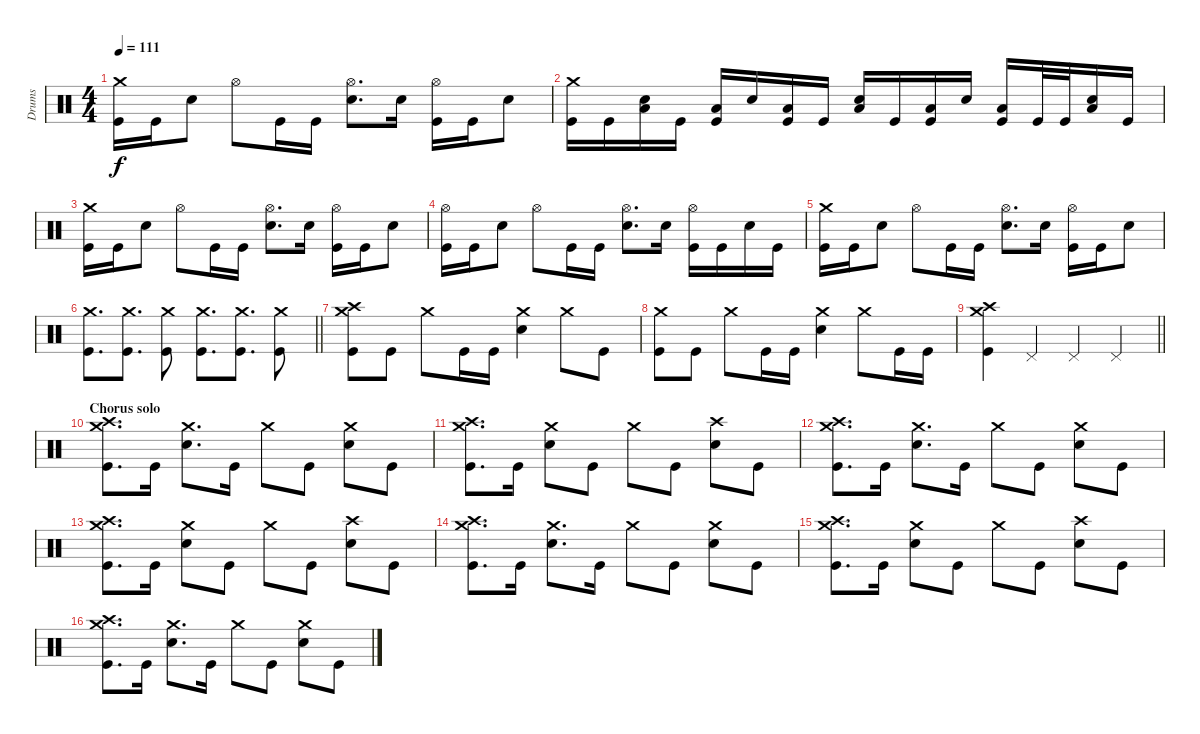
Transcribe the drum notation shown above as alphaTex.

\track ("Drums" "Drums") {instrument percussion}
\staff {score}
\articulation defaults
\ts (4 4)
\tempo 111
\clef neutral
\ks c
("Crash medium (hit)" "Kick (hit)").16{dy f} "Kick (hit)".16 "Electric Snare (hit)".8 "Hi-Hat (open)".8 "Kick (hit)".16 "Kick (hit)".16 ("Hi-Hat (open)" "Electric Snare (hit)").8{d} "Electric Snare (hit)".16 ("Hi-Hat (open)" "Kick (hit)").16 "Kick (hit)".16 "Electric Snare (hit)".8 |
("Crash medium (hit)" "Kick (hit)").16 "Kick (hit)".16 ("Low Floor Tom (hit)" "Electric Snare (hit)").16 "Kick (hit)".16 ("Low Floor Tom (hit)" "Kick (hit)").16 "Electric Snare (hit)".16 ("Low Floor Tom (hit)" "Kick (hit)").16 "Kick (hit)".16 ("Low Floor Tom (hit)" "Electric Snare (hit)").16 "Kick (hit)".16 ("Low Floor Tom (hit)" "Kick (hit)").16 "Electric Snare (hit)".16 ("Low Floor Tom (hit)" "Kick (hit)").16 "Kick (hit)".32 "Kick (hit)".32 ("Low Floor Tom (hit)" "Electric Snare (hit)").16 "Kick (hit)".16 |
("Crash medium (hit)" "Kick (hit)").16 "Kick (hit)".16 "Electric Snare (hit)".8 "Hi-Hat (open)".8 "Kick (hit)".16 "Kick (hit)".16 ("Hi-Hat (open)" "Electric Snare (hit)").8{d} "Electric Snare (hit)".16 ("Hi-Hat (open)" "Kick (hit)").16 "Kick (hit)".16 "Electric Snare (hit)".8 |
("Hi-Hat (open)" "Kick (hit)").16 "Kick (hit)".16 "Electric Snare (hit)".8 "Hi-Hat (open)".8 "Kick (hit)".16 "Kick (hit)".16 ("Hi-Hat (open)" "Electric Snare (hit)").8{d} "Electric Snare (hit)".16 ("Hi-Hat (open)" "Kick (hit)").16 "Kick (hit)".16 "Electric Snare (hit)".16 "Kick (hit)".16 |
("Crash medium (hit)" "Kick (hit)").16 "Kick (hit)".16 "Electric Snare (hit)".8 "Hi-Hat (open)".8 "Kick (hit)".16 "Kick (hit)".16 ("Hi-Hat (open)" "Electric Snare (hit)").8{d} "Electric Snare (hit)".16 ("Hi-Hat (open)" "Kick (hit)").16 "Kick (hit)".16 "Electric Snare (hit)".8 |
\barLineRight lightlight
("Crash medium (hit)" "Kick (hit)").8{d} ("Crash medium (hit)" "Kick (hit)").8{d} ("Crash medium (hit)" "Kick (hit)").8 ("Crash medium (hit)" "Kick (hit)").8{d} ("Crash medium (hit)" "Kick (hit)").8{d} ("Crash medium (hit)" "Kick (hit)").8 |
("Crash medium (hit)" "Crash high (hit)" "Kick (hit)").8 "Kick (hit)".8 "Crash medium (hit)".8 "Kick (hit)".16 "Kick (hit)".16 ("Crash medium (hit)" "Electric Snare (hit)").4 "Crash medium (hit)".8 "Kick (hit)".8 |
("Crash medium (hit)" "Kick (hit)").8 "Kick (hit)".8 "Crash medium (hit)".8 "Kick (hit)".16 "Kick (hit)".16 ("Crash medium (hit)" "Electric Snare (hit)").4 "Crash medium (hit)".8 "Kick (hit)".16 "Kick (hit)".16 |
\barLineRight lightlight
("Crash medium (hit)" "Crash high (hit)" "Kick (hit)").4 "Pedal Hi-Hat (hit)".4 "Pedal Hi-Hat (hit)".4 "Pedal Hi-Hat (hit)".4 |
\section ("" "Chorus solo")
("Crash medium (hit)" "Crash high (hit)" "Kick (hit)").8{d} "Kick (hit)".16 ("Crash medium (hit)" "Electric Snare (hit)").8{d} "Kick (hit)".16 "Crash medium (hit)".8 "Kick (hit)".8 ("Crash medium (hit)" "Electric Snare (hit)").8 "Kick (hit)".8 |
("Crash medium (hit)" "Crash high (hit)" "Kick (hit)").8{d} "Kick (hit)".16 ("Crash medium (hit)" "Electric Snare (hit)").8 "Kick (hit)".8 "Crash medium (hit)".8 "Kick (hit)".8 ("Crash high (hit)" "Electric Snare (hit)").8 "Kick (hit)".8 |
("Crash medium (hit)" "Crash high (hit)" "Kick (hit)").8{d} "Kick (hit)".16 ("Crash medium (hit)" "Electric Snare (hit)").8{d} "Kick (hit)".16 "Crash medium (hit)".8 "Kick (hit)".8 ("Crash medium (hit)" "Electric Snare (hit)").8 "Kick (hit)".8 |
("Crash medium (hit)" "Crash high (hit)" "Kick (hit)").8{d} "Kick (hit)".16 ("Crash medium (hit)" "Electric Snare (hit)").8 "Kick (hit)".8 "Crash medium (hit)".8 "Kick (hit)".8 ("Crash high (hit)" "Electric Snare (hit)").8 "Kick (hit)".8 |
("Crash medium (hit)" "Crash high (hit)" "Kick (hit)").8{d} "Kick (hit)".16 ("Crash medium (hit)" "Electric Snare (hit)").8{d} "Kick (hit)".16 "Crash medium (hit)".8 "Kick (hit)".8 ("Crash medium (hit)" "Electric Snare (hit)").8 "Kick (hit)".8 |
("Crash medium (hit)" "Crash high (hit)" "Kick (hit)").8{d} "Kick (hit)".16 ("Crash medium (hit)" "Electric Snare (hit)").8 "Kick (hit)".8 "Crash medium (hit)".8 "Kick (hit)".8 ("Crash high (hit)" "Electric Snare (hit)").8 "Kick (hit)".8 |
("Crash medium (hit)" "Crash high (hit)" "Kick (hit)").8{d} "Kick (hit)".16 ("Crash medium (hit)" "Electric Snare (hit)").8{d} "Kick (hit)".16 "Crash medium (hit)".8 "Kick (hit)".8 ("Crash medium (hit)" "Electric Snare (hit)").8 "Kick (hit)".8
